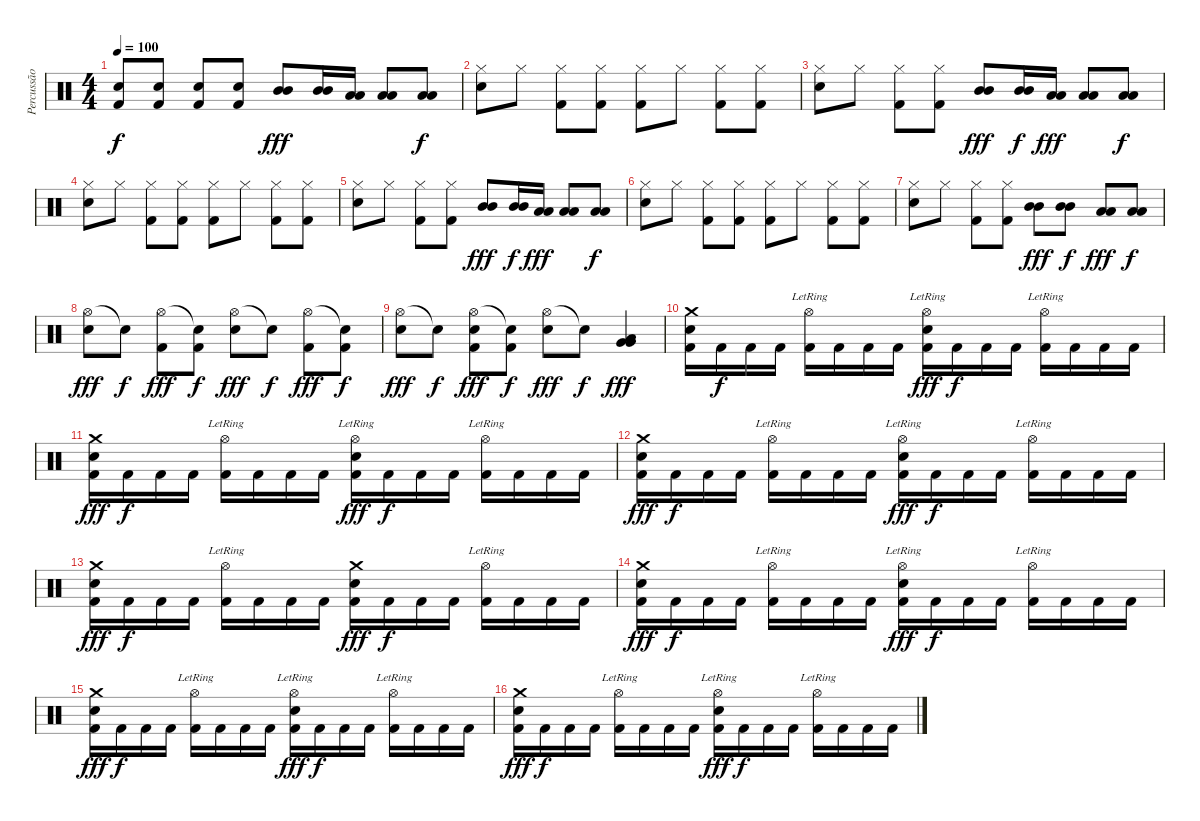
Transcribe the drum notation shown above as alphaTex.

\track ("Percussão" "Percussão") {instrument percussion}
\staff {score}
\articulation defaults
\ts (4 4)
\tempo 100
\clef neutral
\ks c
("Electric Snare (hit)" "Kick (hit) 2").8{dy f} ("Electric Snare (hit)" "Kick (hit) 2").8 ("Electric Snare (hit)" "Kick (hit) 2").8 ("Electric Snare (hit)" "Kick (hit) 2").8 ("Mid Tom (hit)" "Mid Tom (hit)").8{dy fff} ("Mid Tom (hit)" "Mid Tom (hit)").16 ("Low Tom (hit)" "Low Tom (hit)").16 ("Low Tom (hit)" "Low Tom (hit)").8 ("Low Tom (hit)" "Low Tom (hit)").8{dy f} |
("Electric Snare (hit)" "Hi-Hat (closed)").8 "Hi-Hat (closed)".8 ("Hi-Hat (closed)" "Kick (hit) 2").8 ("Hi-Hat (closed)" "Kick (hit) 2").8 ("Hi-Hat (closed)" "Kick (hit) 2").8 "Hi-Hat (closed)".8 ("Hi-Hat (closed)" "Kick (hit) 2").8 ("Hi-Hat (closed)" "Kick (hit) 2").8 |
("Electric Snare (hit)" "Hi-Hat (closed)").8 "Hi-Hat (closed)".8 ("Hi-Hat (closed)" "Kick (hit) 2").8 ("Hi-Hat (closed)" "Kick (hit) 2").8 ("Mid Tom (hit)" "Mid Tom (hit)").8{dy fff} ("Mid Tom (hit)" "Mid Tom (hit)").16{dy f} ("Low Tom (hit)" "Low Tom (hit)").16{dy fff} ("Low Tom (hit)" "Low Tom (hit)").8 ("Low Tom (hit)" "Low Tom (hit)").8{dy f} |
("Electric Snare (hit)" "Hi-Hat (closed)").8 "Hi-Hat (closed)".8 ("Hi-Hat (closed)" "Kick (hit) 2").8 ("Hi-Hat (closed)" "Kick (hit) 2").8 ("Hi-Hat (closed)" "Kick (hit) 2").8 "Hi-Hat (closed)".8 ("Hi-Hat (closed)" "Kick (hit) 2").8 ("Hi-Hat (closed)" "Kick (hit) 2").8 |
("Electric Snare (hit)" "Hi-Hat (closed)").8 "Hi-Hat (closed)".8 ("Hi-Hat (closed)" "Kick (hit) 2").8 ("Hi-Hat (closed)" "Kick (hit) 2").8 ("Mid Tom (hit)" "Mid Tom (hit)").8{dy fff} ("Mid Tom (hit)" "Mid Tom (hit)").16{dy f} ("Low Tom (hit)" "Low Tom (hit)").16{dy fff} ("Low Tom (hit)" "Low Tom (hit)").8 ("Low Tom (hit)" "Low Tom (hit)").8{dy f} |
("Electric Snare (hit)" "Hi-Hat (closed)").8 "Hi-Hat (closed)".8 ("Hi-Hat (closed)" "Kick (hit) 2").8 ("Hi-Hat (closed)" "Kick (hit) 2").8 ("Hi-Hat (closed)" "Kick (hit) 2").8 "Hi-Hat (closed)".8 ("Hi-Hat (closed)" "Kick (hit) 2").8 ("Hi-Hat (closed)" "Kick (hit) 2").8 |
("Electric Snare (hit)" "Hi-Hat (closed)").8 "Hi-Hat (closed)".8 ("Hi-Hat (closed)" "Kick (hit) 2").8 ("Hi-Hat (closed)" "Kick (hit) 2").8 ("Mid Tom (hit)" "Mid Tom (hit)").8{dy fff} ("Mid Tom (hit)" "Mid Tom (hit)").8{dy f} ("Low Tom (hit)" "Low Tom (hit)").8{dy fff} ("Low Tom (hit)" "Low Tom (hit)").8{dy f} |
("Hi-Hat (open)" "Electric Snare (hit)").8{dy fff} "Snare (hit)"{t}.8{dy f} ("Hi-Hat (open)" "Kick (hit) 2").8{dy fff} ("Snare (hit)"{t} "Kick (hit) 2").8{dy f} ("Hi-Hat (open)" "Electric Snare (hit)").8{dy fff} "Snare (hit)"{t}.8{dy f} ("Hi-Hat (open)" "Kick (hit) 2").8{dy fff} ("Snare (hit)"{t} "Kick (hit) 2").8{dy f} |
("Hi-Hat (open)" "Electric Snare (hit)").8{dy fff} "Snare (hit)"{t}.8{dy f} ("Hi-Hat (open)" "Electric Snare (hit)" "Kick (hit) 2").8{dy fff} ("Snare (hit)"{t} "Kick (hit) 2").8{dy f} ("Hi-Hat (open)" "Electric Snare (hit)").8{dy fff} "Snare (hit)"{t}.8{dy f} ("Very Low Tom (hit)" "Very Low Tom (hit)" "Low Tom (hit)").4{dy fff} |
("Crash medium (hit)" "Electric Snare (hit)" "Kick (hit) 2").16 "Kick (hit) 2".16{dy f} "Kick (hit) 2".16 "Kick (hit) 2".16 ("Hi-Hat (open)"{lr} "Kick (hit) 2").16 "Kick (hit) 2".16 "Kick (hit) 2".16 "Kick (hit) 2".16 ("Hi-Hat (open)"{lr} "Electric Snare (hit)" "Kick (hit) 2").16{dy fff} "Kick (hit) 2".16{dy f} "Kick (hit) 2".16 "Kick (hit) 2".16 ("Hi-Hat (open)"{lr} "Kick (hit) 2").16 "Kick (hit) 2".16 "Kick (hit) 2".16 "Kick (hit) 2".16 |
("Crash medium (hit)" "Electric Snare (hit)" "Kick (hit) 2").16{dy fff} "Kick (hit) 2".16{dy f} "Kick (hit) 2".16 "Kick (hit) 2".16 ("Hi-Hat (open)"{lr} "Kick (hit) 2").16 "Kick (hit) 2".16 "Kick (hit) 2".16 "Kick (hit) 2".16 ("Hi-Hat (open)"{lr} "Electric Snare (hit)" "Kick (hit) 2").16{dy fff} "Kick (hit) 2".16{dy f} "Kick (hit) 2".16 "Kick (hit) 2".16 ("Hi-Hat (open)"{lr} "Kick (hit) 2").16 "Kick (hit) 2".16 "Kick (hit) 2".16 "Kick (hit) 2".16 |
("Crash medium (hit)" "Electric Snare (hit)" "Kick (hit) 2").16{dy fff} "Kick (hit) 2".16{dy f} "Kick (hit) 2".16 "Kick (hit) 2".16 ("Hi-Hat (open)"{lr} "Kick (hit) 2").16 "Kick (hit) 2".16 "Kick (hit) 2".16 "Kick (hit) 2".16 ("Hi-Hat (open)"{lr} "Electric Snare (hit)" "Kick (hit) 2").16{dy fff} "Kick (hit) 2".16{dy f} "Kick (hit) 2".16 "Kick (hit) 2".16 ("Hi-Hat (open)"{lr} "Kick (hit) 2").16 "Kick (hit) 2".16 "Kick (hit) 2".16 "Kick (hit) 2".16 |
("Crash medium (hit)" "Electric Snare (hit)" "Kick (hit) 2").16{dy fff} "Kick (hit) 2".16{dy f} "Kick (hit) 2".16 "Kick (hit) 2".16 ("Hi-Hat (open)"{lr} "Kick (hit) 2").16 "Kick (hit) 2".16 "Kick (hit) 2".16 "Kick (hit) 2".16 ("Crash medium (hit)" "Electric Snare (hit)" "Kick (hit) 2").16{dy fff} "Kick (hit) 2".16{dy f} "Kick (hit) 2".16 "Kick (hit) 2".16 ("Hi-Hat (open)"{lr} "Kick (hit) 2").16 "Kick (hit) 2".16 "Kick (hit) 2".16 "Kick (hit) 2".16 |
("Crash medium (hit)" "Electric Snare (hit)" "Kick (hit) 2").16{dy fff} "Kick (hit) 2".16{dy f} "Kick (hit) 2".16 "Kick (hit) 2".16 ("Hi-Hat (open)"{lr} "Kick (hit) 2").16 "Kick (hit) 2".16 "Kick (hit) 2".16 "Kick (hit) 2".16 ("Hi-Hat (open)"{lr} "Electric Snare (hit)" "Kick (hit) 2").16{dy fff} "Kick (hit) 2".16{dy f} "Kick (hit) 2".16 "Kick (hit) 2".16 ("Hi-Hat (open)"{lr} "Kick (hit) 2").16 "Kick (hit) 2".16 "Kick (hit) 2".16 "Kick (hit) 2".16 |
("Crash medium (hit)" "Electric Snare (hit)" "Kick (hit) 2").16{dy fff} "Kick (hit) 2".16{dy f} "Kick (hit) 2".16 "Kick (hit) 2".16 ("Hi-Hat (open)"{lr} "Kick (hit) 2").16 "Kick (hit) 2".16 "Kick (hit) 2".16 "Kick (hit) 2".16 ("Hi-Hat (open)"{lr} "Electric Snare (hit)" "Kick (hit) 2").16{dy fff} "Kick (hit) 2".16{dy f} "Kick (hit) 2".16 "Kick (hit) 2".16 ("Hi-Hat (open)"{lr} "Kick (hit) 2").16 "Kick (hit) 2".16 "Kick (hit) 2".16 "Kick (hit) 2".16 |
("Crash medium (hit)" "Electric Snare (hit)" "Kick (hit) 2").16{dy fff} "Kick (hit) 2".16{dy f} "Kick (hit) 2".16 "Kick (hit) 2".16 ("Hi-Hat (open)"{lr} "Kick (hit) 2").16 "Kick (hit) 2".16 "Kick (hit) 2".16 "Kick (hit) 2".16 ("Hi-Hat (open)"{lr} "Electric Snare (hit)" "Kick (hit) 2").16{dy fff} "Kick (hit) 2".16{dy f} "Kick (hit) 2".16 "Kick (hit) 2".16 ("Hi-Hat (open)"{lr} "Kick (hit) 2").16 "Kick (hit) 2".16 "Kick (hit) 2".16 "Kick (hit) 2".16
